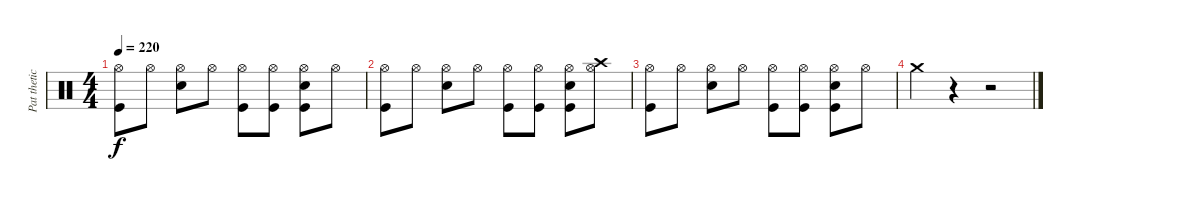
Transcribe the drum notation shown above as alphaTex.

\track ("Pat thetic " "Pat thetic") {instrument percussion}
\staff {score}
\articulation defaults
\ts (4 4)
\tempo 220
\clef neutral
\ks c
("Kick (hit)" "Hi-Hat (open)").8{dy f} "Hi-Hat (open)".8 ("Electric Snare (hit)" "Hi-Hat (open)").8 "Hi-Hat (open)".8 ("Kick (hit)" "Hi-Hat (open)").8 ("Kick (hit)" "Hi-Hat (open)").8 ("Kick (hit)" "Electric Snare (hit)" "Hi-Hat (open)").8 "Hi-Hat (open)".8 |
("Kick (hit)" "Hi-Hat (open)").8 "Hi-Hat (open)".8 ("Electric Snare (hit)" "Hi-Hat (open)").8 "Hi-Hat (open)".8 ("Kick (hit)" "Hi-Hat (open)").8 ("Kick (hit)" "Hi-Hat (open)").8 ("Kick (hit)" "Electric Snare (hit)" "Hi-Hat (open)").8 ("Crash high (hit)" "Hi-Hat (open)").8 |
("Kick (hit)" "Hi-Hat (open)").8 "Hi-Hat (open)".8 ("Electric Snare (hit)" "Hi-Hat (open)").8 "Hi-Hat (open)".8 ("Kick (hit)" "Hi-Hat (open)").8 ("Kick (hit)" "Hi-Hat (open)").8 ("Kick (hit)" "Electric Snare (hit)" "Hi-Hat (open)").8 "Hi-Hat (open)".8 |
"Crash medium (hit)".4 r.4 r.2
